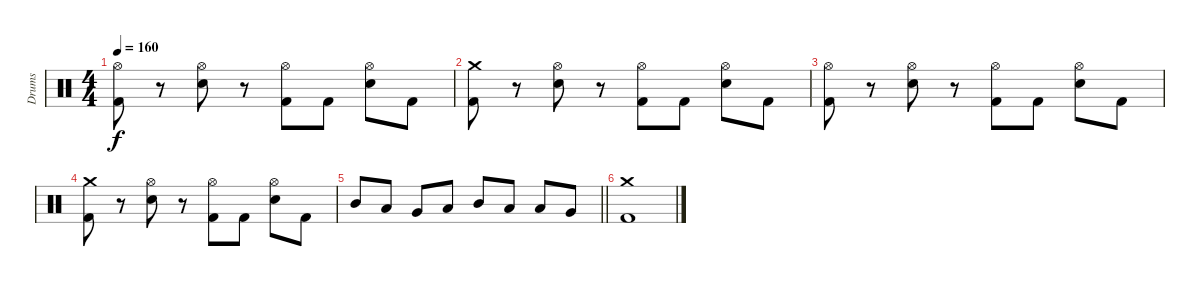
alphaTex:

\track ("Drums" "Drums") {instrument percussion}
\staff {score}
\articulation defaults
\ts (4 4)
\tempo 160
\clef neutral
\ks c
("Hi-Hat (open)" "Kick (hit) 2").8{dy f} r.8 ("Hi-Hat (open)" "Snare (hit) 2").8 r.8 ("Hi-Hat (open)" "Kick (hit) 2").8 "Kick (hit) 2".8 ("Hi-Hat (open)" "Snare (hit) 2").8 "Kick (hit) 2".8 |
("Crash medium (hit)" "Kick (hit) 2").8 r.8 ("Hi-Hat (open)" "Snare (hit) 2").8 r.8 ("Hi-Hat (open)" "Kick (hit) 2").8 "Kick (hit) 2".8 ("Hi-Hat (open)" "Snare (hit) 2").8 "Kick (hit) 2".8 |
("Hi-Hat (open)" "Kick (hit) 2").8 r.8 ("Hi-Hat (open)" "Snare (hit) 2").8 r.8 ("Hi-Hat (open)" "Kick (hit) 2").8 "Kick (hit) 2".8 ("Hi-Hat (open)" "Snare (hit) 2").8 "Kick (hit) 2".8 |
("Crash medium (hit)" "Kick (hit) 2").8 r.8 ("Hi-Hat (open)" "Snare (hit) 2").8 r.8 ("Hi-Hat (open)" "Kick (hit) 2").8 "Kick (hit) 2".8 ("Hi-Hat (open)" "Snare (hit) 2").8 "Kick (hit) 2".8 |
\barLineRight lightlight "Mid Tom (hit)".8 "Low Tom (hit)".8 "Very Low Tom (hit)".8 "Low Tom (hit)".8 "Mid Tom (hit)".8 "Low Tom (hit)".8 "Low Tom (hit)".8 "Very Low Tom (hit)".8
|
("Crash medium (hit)" "Kick (hit) 2").1
